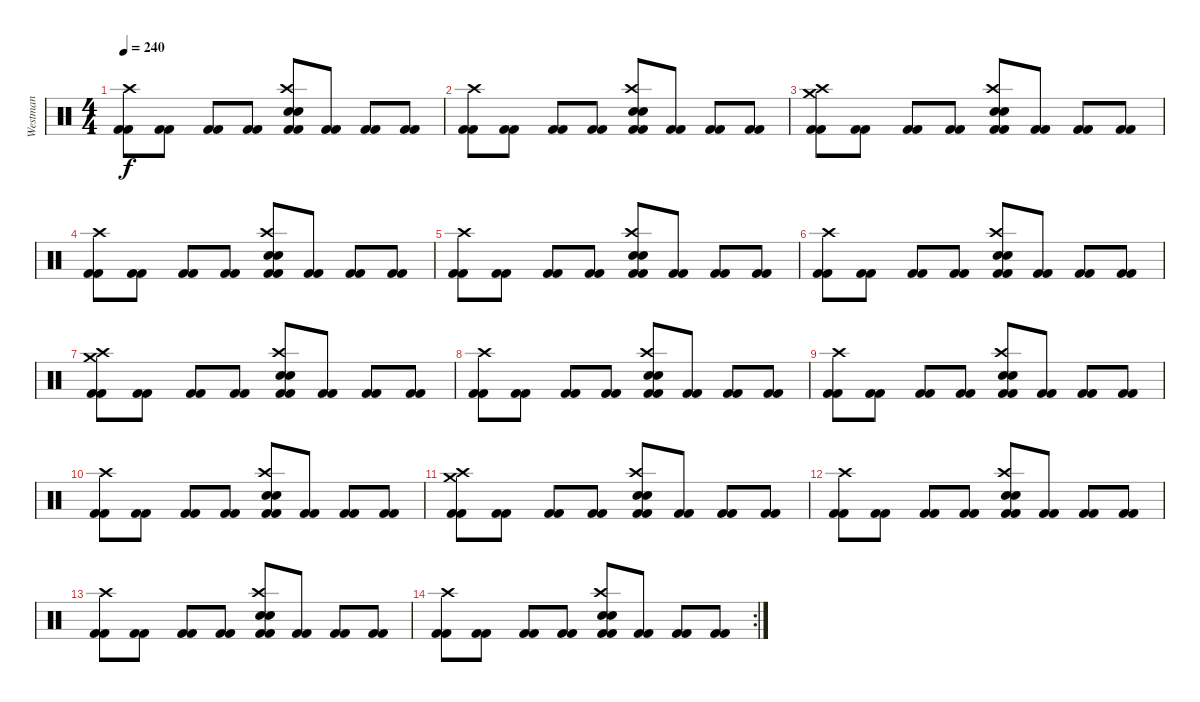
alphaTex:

\track ("Westman" "Westman") {instrument percussion}
\staff {score}
\articulation defaults
\ts (4 4)
\tempo 240
\clef neutral
\ks c
("Kick (hit) 2" "Kick (hit) 2" "Crash high (hit)").8{dy f} ("Kick (hit) 2" "Kick (hit) 2").8 ("Kick (hit) 2" "Kick (hit) 2").8 ("Kick (hit) 2" "Kick (hit) 2").8 ("Kick (hit) 2" "Kick (hit) 2" "Electric Snare (hit)" "Crash high (hit)" "Snare (hit) 2").8 ("Kick (hit) 2" "Kick (hit) 2").8 ("Kick (hit) 2" "Kick (hit) 2").8 ("Kick (hit) 2" "Kick (hit) 2").8 |
("Kick (hit) 2" "Kick (hit) 2" "Crash high (hit)").8 ("Kick (hit) 2" "Kick (hit) 2").8 ("Kick (hit) 2" "Kick (hit) 2").8 ("Kick (hit) 2" "Kick (hit) 2").8 ("Kick (hit) 2" "Kick (hit) 2" "Electric Snare (hit)" "Crash high (hit)" "Snare (hit) 2").8 ("Kick (hit) 2" "Kick (hit) 2").8 ("Kick (hit) 2" "Kick (hit) 2").8 ("Kick (hit) 2" "Kick (hit) 2").8 |
("Kick (hit) 2" "Kick (hit) 2" "Crash high (hit)" "Crash medium (hit)").8 ("Kick (hit) 2" "Kick (hit) 2").8 ("Kick (hit) 2" "Kick (hit) 2").8 ("Kick (hit) 2" "Kick (hit) 2").8 ("Kick (hit) 2" "Kick (hit) 2" "Electric Snare (hit)" "Crash high (hit)" "Snare (hit) 2").8 ("Kick (hit) 2" "Kick (hit) 2").8 ("Kick (hit) 2" "Kick (hit) 2").8 ("Kick (hit) 2" "Kick (hit) 2").8 |
("Kick (hit) 2" "Kick (hit) 2" "Crash high (hit)").8 ("Kick (hit) 2" "Kick (hit) 2").8 ("Kick (hit) 2" "Kick (hit) 2").8 ("Kick (hit) 2" "Kick (hit) 2").8 ("Kick (hit) 2" "Kick (hit) 2" "Electric Snare (hit)" "Crash high (hit)" "Snare (hit) 2").8 ("Kick (hit) 2" "Kick (hit) 2").8 ("Kick (hit) 2" "Kick (hit) 2").8 ("Kick (hit) 2" "Kick (hit) 2").8 |
("Kick (hit) 2" "Kick (hit) 2" "Crash high (hit)").8 ("Kick (hit) 2" "Kick (hit) 2").8 ("Kick (hit) 2" "Kick (hit) 2").8 ("Kick (hit) 2" "Kick (hit) 2").8 ("Kick (hit) 2" "Kick (hit) 2" "Electric Snare (hit)" "Crash high (hit)" "Snare (hit) 2").8 ("Kick (hit) 2" "Kick (hit) 2").8 ("Kick (hit) 2" "Kick (hit) 2").8 ("Kick (hit) 2" "Kick (hit) 2").8 |
("Kick (hit) 2" "Kick (hit) 2" "Crash high (hit)").8 ("Kick (hit) 2" "Kick (hit) 2").8 ("Kick (hit) 2" "Kick (hit) 2").8 ("Kick (hit) 2" "Kick (hit) 2").8 ("Kick (hit) 2" "Kick (hit) 2" "Electric Snare (hit)" "Crash high (hit)" "Snare (hit) 2").8 ("Kick (hit) 2" "Kick (hit) 2").8 ("Kick (hit) 2" "Kick (hit) 2").8 ("Kick (hit) 2" "Kick (hit) 2").8 |
("Kick (hit) 2" "Kick (hit) 2" "Crash high (hit)" "Crash medium (hit)").8 ("Kick (hit) 2" "Kick (hit) 2").8 ("Kick (hit) 2" "Kick (hit) 2").8 ("Kick (hit) 2" "Kick (hit) 2").8 ("Kick (hit) 2" "Kick (hit) 2" "Electric Snare (hit)" "Crash high (hit)" "Snare (hit) 2").8 ("Kick (hit) 2" "Kick (hit) 2").8 ("Kick (hit) 2" "Kick (hit) 2").8 ("Kick (hit) 2" "Kick (hit) 2").8 |
("Kick (hit) 2" "Kick (hit) 2" "Crash high (hit)").8 ("Kick (hit) 2" "Kick (hit) 2").8 ("Kick (hit) 2" "Kick (hit) 2").8 ("Kick (hit) 2" "Kick (hit) 2").8 ("Kick (hit) 2" "Kick (hit) 2" "Electric Snare (hit)" "Crash high (hit)" "Snare (hit) 2").8 ("Kick (hit) 2" "Kick (hit) 2").8 ("Kick (hit) 2" "Kick (hit) 2").8 ("Kick (hit) 2" "Kick (hit) 2").8 |
("Kick (hit) 2" "Kick (hit) 2" "Crash high (hit)").8 ("Kick (hit) 2" "Kick (hit) 2").8 ("Kick (hit) 2" "Kick (hit) 2").8 ("Kick (hit) 2" "Kick (hit) 2").8 ("Kick (hit) 2" "Kick (hit) 2" "Electric Snare (hit)" "Crash high (hit)" "Snare (hit) 2").8 ("Kick (hit) 2" "Kick (hit) 2").8 ("Kick (hit) 2" "Kick (hit) 2").8 ("Kick (hit) 2" "Kick (hit) 2").8 |
("Kick (hit) 2" "Kick (hit) 2" "Crash high (hit)").8 ("Kick (hit) 2" "Kick (hit) 2").8 ("Kick (hit) 2" "Kick (hit) 2").8 ("Kick (hit) 2" "Kick (hit) 2").8 ("Kick (hit) 2" "Kick (hit) 2" "Electric Snare (hit)" "Crash high (hit)" "Snare (hit) 2").8 ("Kick (hit) 2" "Kick (hit) 2").8 ("Kick (hit) 2" "Kick (hit) 2").8 ("Kick (hit) 2" "Kick (hit) 2").8 |
("Kick (hit) 2" "Kick (hit) 2" "Crash high (hit)" "Crash medium (hit)").8 ("Kick (hit) 2" "Kick (hit) 2").8 ("Kick (hit) 2" "Kick (hit) 2").8 ("Kick (hit) 2" "Kick (hit) 2").8 ("Kick (hit) 2" "Kick (hit) 2" "Electric Snare (hit)" "Crash high (hit)" "Snare (hit) 2").8 ("Kick (hit) 2" "Kick (hit) 2").8 ("Kick (hit) 2" "Kick (hit) 2").8 ("Kick (hit) 2" "Kick (hit) 2").8 |
("Kick (hit) 2" "Kick (hit) 2" "Crash high (hit)").8 ("Kick (hit) 2" "Kick (hit) 2").8 ("Kick (hit) 2" "Kick (hit) 2").8 ("Kick (hit) 2" "Kick (hit) 2").8 ("Kick (hit) 2" "Kick (hit) 2" "Electric Snare (hit)" "Crash high (hit)" "Snare (hit) 2").8 ("Kick (hit) 2" "Kick (hit) 2").8 ("Kick (hit) 2" "Kick (hit) 2").8 ("Kick (hit) 2" "Kick (hit) 2").8 |
("Kick (hit) 2" "Kick (hit) 2" "Crash high (hit)").8 ("Kick (hit) 2" "Kick (hit) 2").8 ("Kick (hit) 2" "Kick (hit) 2").8 ("Kick (hit) 2" "Kick (hit) 2").8 ("Kick (hit) 2" "Kick (hit) 2" "Electric Snare (hit)" "Crash high (hit)" "Snare (hit) 2").8 ("Kick (hit) 2" "Kick (hit) 2").8 ("Kick (hit) 2" "Kick (hit) 2").8 ("Kick (hit) 2" "Kick (hit) 2").8 |
\rc 2
("Kick (hit) 2" "Kick (hit) 2" "Crash high (hit)").8 ("Kick (hit) 2" "Kick (hit) 2").8 ("Kick (hit) 2" "Kick (hit) 2").8 ("Kick (hit) 2" "Kick (hit) 2").8 ("Kick (hit) 2" "Kick (hit) 2" "Electric Snare (hit)" "Crash high (hit)" "Snare (hit) 2").8 ("Kick (hit) 2" "Kick (hit) 2").8 ("Kick (hit) 2" "Kick (hit) 2").8 ("Kick (hit) 2" "Kick (hit) 2").8
